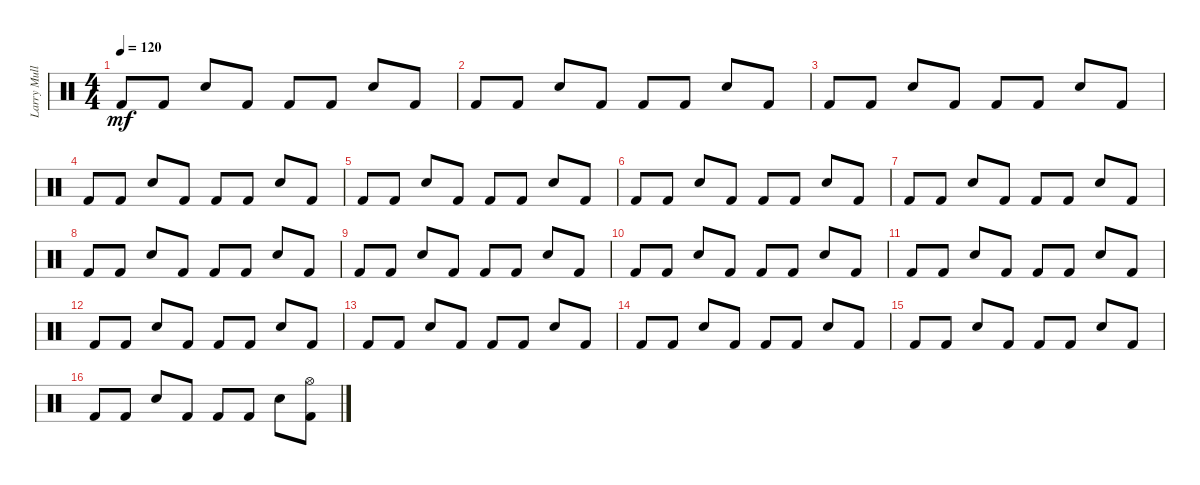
\track ("Larry Mullen Jr" "Larry Mull") {instrument percussion}
\staff {score}
\articulation defaults
\ts (4 4)
\tempo 120
\clef neutral
\ks c "Kick (hit) 2".8{dy mf} "Kick (hit) 2".8 "Snare (hit) 2".8 "Kick (hit) 2".8 "Kick (hit) 2".8 "Kick (hit) 2".8 "Snare (hit) 2".8 "Kick (hit) 2".8
|
"Kick (hit) 2".8 "Kick (hit) 2".8 "Snare (hit) 2".8 "Kick (hit) 2".8 "Kick (hit) 2".8 "Kick (hit) 2".8 "Snare (hit) 2".8 "Kick (hit) 2".8 |
"Kick (hit) 2".8 "Kick (hit) 2".8 "Snare (hit) 2".8 "Kick (hit) 2".8 "Kick (hit) 2".8 "Kick (hit) 2".8 "Snare (hit) 2".8 "Kick (hit) 2".8 |
"Kick (hit) 2".8 "Kick (hit) 2".8 "Snare (hit) 2".8 "Kick (hit) 2".8 "Kick (hit) 2".8 "Kick (hit) 2".8 "Snare (hit) 2".8 "Kick (hit) 2".8 |
"Kick (hit) 2".8 "Kick (hit) 2".8 "Snare (hit) 2".8 "Kick (hit) 2".8 "Kick (hit) 2".8 "Kick (hit) 2".8 "Snare (hit) 2".8 "Kick (hit) 2".8 |
"Kick (hit) 2".8 "Kick (hit) 2".8 "Snare (hit) 2".8 "Kick (hit) 2".8 "Kick (hit) 2".8 "Kick (hit) 2".8 "Snare (hit) 2".8 "Kick (hit) 2".8 |
"Kick (hit) 2".8 "Kick (hit) 2".8 "Snare (hit) 2".8 "Kick (hit) 2".8 "Kick (hit) 2".8 "Kick (hit) 2".8 "Snare (hit) 2".8 "Kick (hit) 2".8 |
"Kick (hit) 2".8 "Kick (hit) 2".8 "Snare (hit) 2".8 "Kick (hit) 2".8 "Kick (hit) 2".8 "Kick (hit) 2".8 "Snare (hit) 2".8 "Kick (hit) 2".8 |
"Kick (hit) 2".8 "Kick (hit) 2".8 "Snare (hit) 2".8 "Kick (hit) 2".8 "Kick (hit) 2".8 "Kick (hit) 2".8 "Snare (hit) 2".8 "Kick (hit) 2".8 |
"Kick (hit) 2".8 "Kick (hit) 2".8 "Snare (hit) 2".8 "Kick (hit) 2".8 "Kick (hit) 2".8 "Kick (hit) 2".8 "Snare (hit) 2".8 "Kick (hit) 2".8 |
"Kick (hit) 2".8 "Kick (hit) 2".8 "Snare (hit) 2".8 "Kick (hit) 2".8 "Kick (hit) 2".8 "Kick (hit) 2".8 "Snare (hit) 2".8 "Kick (hit) 2".8 |
"Kick (hit) 2".8 "Kick (hit) 2".8 "Snare (hit) 2".8 "Kick (hit) 2".8 "Kick (hit) 2".8 "Kick (hit) 2".8 "Snare (hit) 2".8 "Kick (hit) 2".8 |
"Kick (hit) 2".8 "Kick (hit) 2".8 "Snare (hit) 2".8 "Kick (hit) 2".8 "Kick (hit) 2".8 "Kick (hit) 2".8 "Snare (hit) 2".8 "Kick (hit) 2".8 |
"Kick (hit) 2".8 "Kick (hit) 2".8 "Snare (hit) 2".8 "Kick (hit) 2".8 "Kick (hit) 2".8 "Kick (hit) 2".8 "Snare (hit) 2".8 "Kick (hit) 2".8 |
"Kick (hit) 2".8 "Kick (hit) 2".8 "Snare (hit) 2".8 "Kick (hit) 2".8 "Kick (hit) 2".8 "Kick (hit) 2".8 "Snare (hit) 2".8 "Kick (hit) 2".8 |
"Kick (hit) 2".8 "Kick (hit) 2".8 "Snare (hit) 2".8 "Kick (hit) 2".8 "Kick (hit) 2".8 "Kick (hit) 2".8 "Snare (hit) 2".8 ("Kick (hit) 2" "Hi-Hat (open)").8
